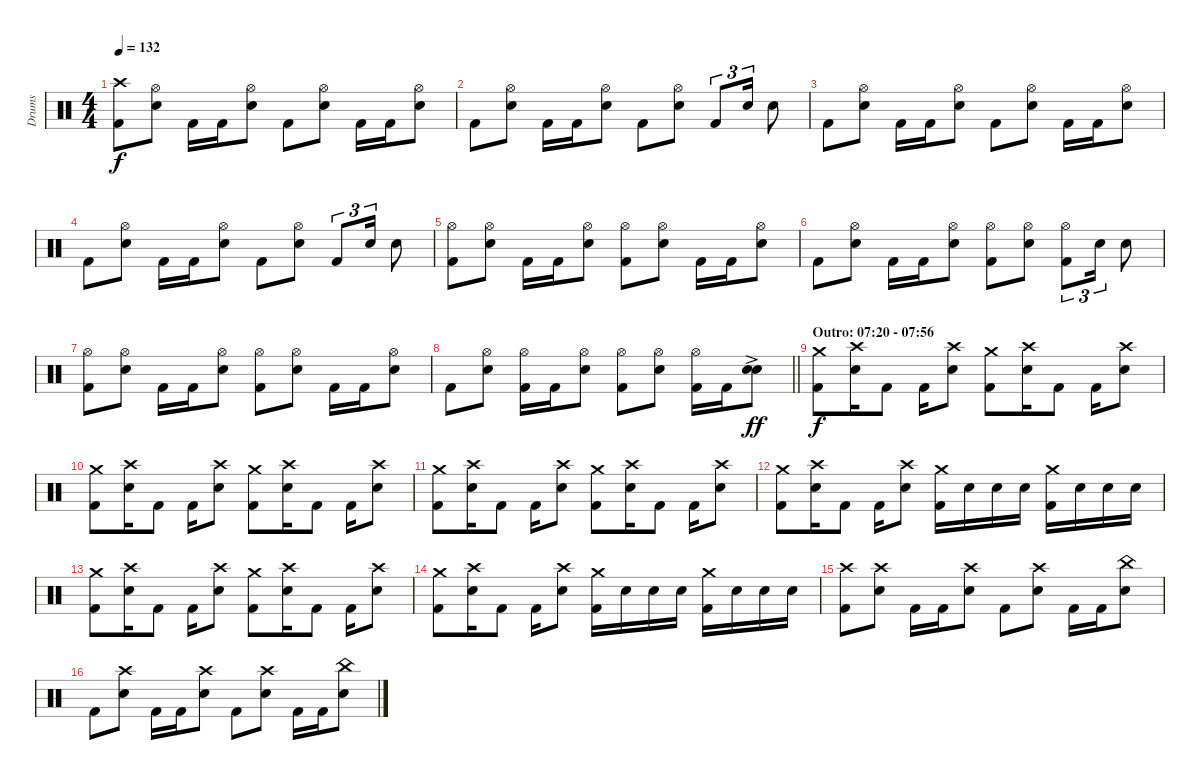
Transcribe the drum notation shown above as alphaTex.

\track ("Drums" "Drums") {instrument percussion}
\staff {score}
\articulation defaults
\ts (4 4)
\tempo 132
\clef neutral
\ks c
("Crash high (hit)" "Kick (hit) 2").8{dy f} ("Hi-Hat (open)" "Electric Snare (hit)").8 "Kick (hit) 2".16 "Kick (hit) 2".16 ("Hi-Hat (open)" "Electric Snare (hit)").8 "Kick (hit) 2".8 ("Hi-Hat (open)" "Electric Snare (hit)").8 "Kick (hit) 2".16 "Kick (hit) 2".16 ("Hi-Hat (open)" "Electric Snare (hit)").8 |
"Kick (hit) 2".8 ("Hi-Hat (open)" "Electric Snare (hit)").8 "Kick (hit) 2".16 "Kick (hit) 2".16 ("Hi-Hat (open)" "Electric Snare (hit)").8 "Kick (hit) 2".8 ("Hi-Hat (open)" "Electric Snare (hit)").8 "Kick (hit) 2".8{tu (3 2)} "Electric Snare (hit)".16{tu (3 2)} "Electric Snare (hit)".8 |
"Kick (hit) 2".8 ("Hi-Hat (open)" "Electric Snare (hit)").8 "Kick (hit) 2".16 "Kick (hit) 2".16 ("Hi-Hat (open)" "Electric Snare (hit)").8 "Kick (hit) 2".8 ("Hi-Hat (open)" "Electric Snare (hit)").8 "Kick (hit) 2".16 "Kick (hit) 2".16 ("Hi-Hat (open)" "Electric Snare (hit)").8 |
"Kick (hit) 2".8 ("Hi-Hat (open)" "Electric Snare (hit)").8 "Kick (hit) 2".16 "Kick (hit) 2".16 ("Hi-Hat (open)" "Electric Snare (hit)").8 "Kick (hit) 2".8 ("Hi-Hat (open)" "Electric Snare (hit)").8 "Kick (hit) 2".8{tu (3 2)} "Electric Snare (hit)".16{tu (3 2)} "Electric Snare (hit)".8 |
("Hi-Hat (open)" "Kick (hit) 2").8 ("Hi-Hat (open)" "Electric Snare (hit)").8 "Kick (hit) 2".16 "Kick (hit) 2".16 ("Hi-Hat (open)" "Electric Snare (hit)").8 ("Hi-Hat (open)" "Kick (hit) 2").8 ("Hi-Hat (open)" "Electric Snare (hit)").8 "Kick (hit) 2".16 "Kick (hit) 2".16 ("Hi-Hat (open)" "Electric Snare (hit)").8 |
"Kick (hit) 2".8 ("Hi-Hat (open)" "Electric Snare (hit)").8 "Kick (hit) 2".16 "Kick (hit) 2".16 ("Hi-Hat (open)" "Electric Snare (hit)").8 ("Hi-Hat (open)" "Kick (hit) 2").8 ("Hi-Hat (open)" "Electric Snare (hit)").8 ("Hi-Hat (open)" "Kick (hit) 2").8{tu (3 2)} "Electric Snare (hit)".16{tu (3 2)} "Electric Snare (hit)".8 |
("Hi-Hat (open)" "Kick (hit) 2").8 ("Hi-Hat (open)" "Electric Snare (hit)").8 "Kick (hit) 2".16 "Kick (hit) 2".16 ("Hi-Hat (open)" "Electric Snare (hit)").8 ("Hi-Hat (open)" "Kick (hit) 2").8 ("Hi-Hat (open)" "Electric Snare (hit)").8 "Kick (hit) 2".16 "Kick (hit) 2".16 ("Hi-Hat (open)" "Electric Snare (hit)").8 |
\barLineRight lightlight "Kick (hit) 2".8
("Hi-Hat (open)" "Electric Snare (hit)").8 ("Hi-Hat (open)" "Kick (hit) 2").16 "Kick (hit) 2".16 ("Hi-Hat (open)" "Electric Snare (hit)").8 ("Hi-Hat (open)" "Kick (hit) 2").8 ("Hi-Hat (open)" "Electric Snare (hit)").8 ("Hi-Hat (open)" "Kick (hit) 2").16 "Kick (hit) 2".16 ("Electric Snare (hit)"{ac} "Electric Snare (hit)"{ac}).8{bd 120 dy ff} |
\section ("" "Outro: 07:20 - 07:56")
("Crash medium (hit)" "Kick (hit) 2").8{dy f} ("Crash high (hit)" "Electric Snare (hit)").16 "Kick (hit) 2".8 "Kick (hit) 2".16 ("Crash high (hit)" "Electric Snare (hit)").8 ("Crash medium (hit)" "Kick (hit) 2").8 ("Crash high (hit)" "Electric Snare (hit)").16 "Kick (hit) 2".8 "Kick (hit) 2".16 ("Crash high (hit)" "Electric Snare (hit)").8 |
("Crash medium (hit)" "Kick (hit) 2").8 ("Crash high (hit)" "Electric Snare (hit)").16 "Kick (hit) 2".8 "Kick (hit) 2".16 ("Crash high (hit)" "Electric Snare (hit)").8 ("Crash medium (hit)" "Kick (hit) 2").8 ("Crash high (hit)" "Electric Snare (hit)").16 "Kick (hit) 2".8 "Kick (hit) 2".16 ("Crash high (hit)" "Electric Snare (hit)").8 |
("Crash medium (hit)" "Kick (hit) 2").8 ("Crash high (hit)" "Electric Snare (hit)").16 "Kick (hit) 2".8 "Kick (hit) 2".16 ("Crash high (hit)" "Electric Snare (hit)").8 ("Crash medium (hit)" "Kick (hit) 2").8 ("Crash high (hit)" "Electric Snare (hit)").16 "Kick (hit) 2".8 "Kick (hit) 2".16 ("Crash high (hit)" "Electric Snare (hit)").8 |
("Crash medium (hit)" "Kick (hit) 2").8 ("Crash high (hit)" "Electric Snare (hit)").16 "Kick (hit) 2".8 "Kick (hit) 2".16 ("Crash high (hit)" "Electric Snare (hit)").8 ("Crash medium (hit)" "Kick (hit) 2").16 "Electric Snare (hit)".16 "Electric Snare (hit)".16 "Electric Snare (hit)".16 ("Crash medium (hit)" "Kick (hit) 2").16 "Electric Snare (hit)".16 "Electric Snare (hit)".16 "Electric Snare (hit)".16 |
("Crash medium (hit)" "Kick (hit) 2").8 ("Crash high (hit)" "Electric Snare (hit)").16 "Kick (hit) 2".8 "Kick (hit) 2".16 ("Crash high (hit)" "Electric Snare (hit)").8 ("Crash medium (hit)" "Kick (hit) 2").8 ("Crash high (hit)" "Electric Snare (hit)").16 "Kick (hit) 2".8 "Kick (hit) 2".16 ("Crash high (hit)" "Electric Snare (hit)").8 |
("Crash medium (hit)" "Kick (hit) 2").8 ("Crash high (hit)" "Electric Snare (hit)").16 "Kick (hit) 2".8 "Kick (hit) 2".16 ("Crash high (hit)" "Electric Snare (hit)").8 ("Crash medium (hit)" "Kick (hit) 2").16 "Electric Snare (hit)".16 "Electric Snare (hit)".16 "Electric Snare (hit)".16 ("Crash medium (hit)" "Kick (hit) 2").16 "Electric Snare (hit)".16 "Electric Snare (hit)".16 "Electric Snare (hit)".16 |
("Crash high (hit)" "Kick (hit) 2").8 ("Crash high (hit)" "Electric Snare (hit)").8 "Kick (hit) 2".16 "Kick (hit) 2".16 ("Crash high (hit)" "Electric Snare (hit)").8 "Kick (hit) 2".8 ("Crash high (hit)" "Electric Snare (hit)").8 "Kick (hit) 2".16 "Kick (hit) 2".16 ("China (hit)" "Electric Snare (hit)").8 |
"Kick (hit) 2".8 ("Crash high (hit)" "Electric Snare (hit)").8 "Kick (hit) 2".16 "Kick (hit) 2".16 ("Crash high (hit)" "Electric Snare (hit)").8 "Kick (hit) 2".8 ("Crash high (hit)" "Electric Snare (hit)").8 "Kick (hit) 2".16 "Kick (hit) 2".16 ("China (hit)" "Electric Snare (hit)").8
